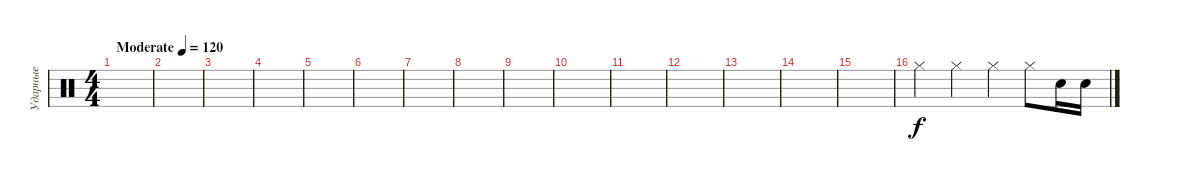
\track ("Ударные" "Ударные") {instrument percussion}
\staff {score}
\articulation defaults
\ts (4 4)
\tempo (120 "Moderate")
\tempo 90
\tempo (120 "Moderate")
\clef neutral
\ks c
|
|
|
|
|
|
|
|
|
|
|
|
|
|
|
"Hi-Hat (closed)".4 "Hi-Hat (closed)".4 "Hi-Hat (closed)".4 "Hi-Hat (closed)".8 "Electric Snare (hit)".16 "Electric Snare (hit)".16
